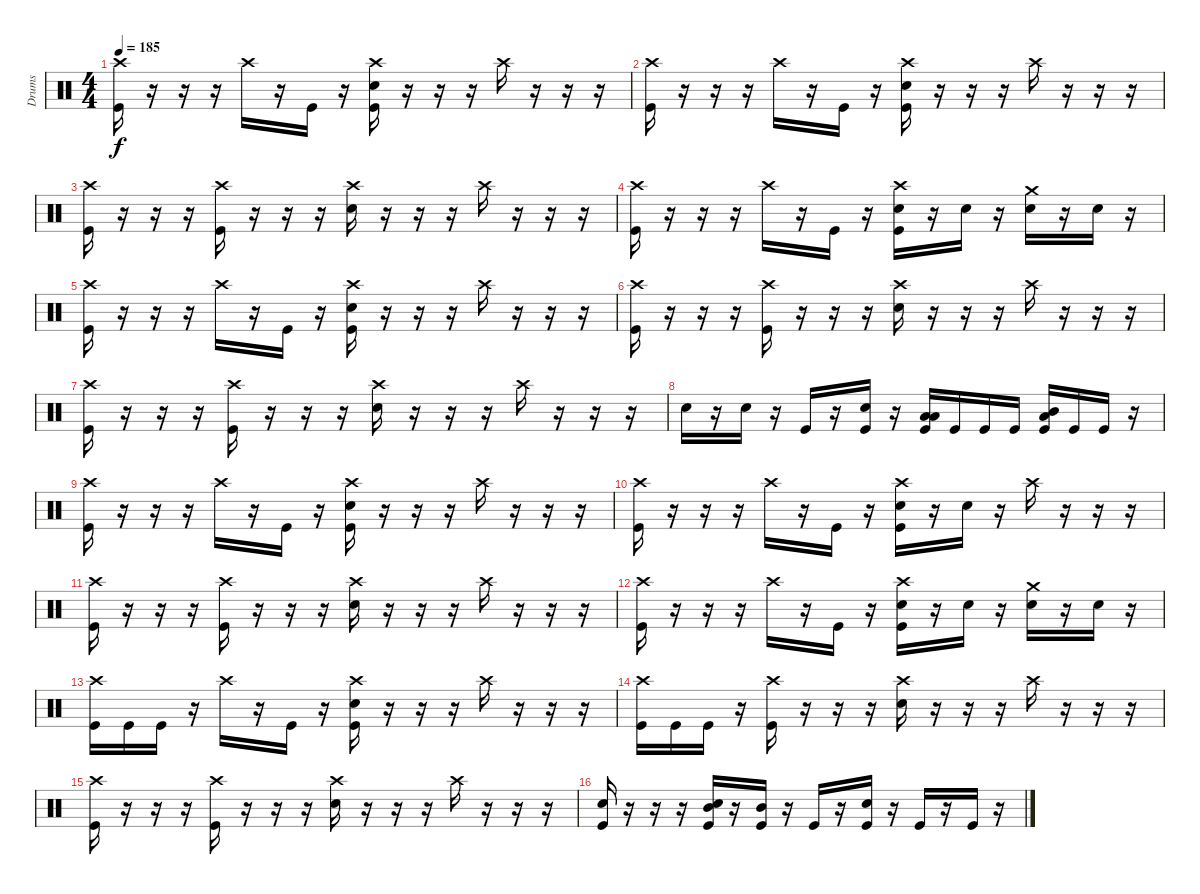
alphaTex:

\track ("Drums" "Drums") {instrument percussion}
\staff {score}
\articulation defaults
\ts (4 4)
\tempo 185
\clef neutral
\ks c
("Crash high (hit)" "Kick (hit)").16{dy f} r.16 r.16 r.16 "Crash high (hit)".16 r.16 "Kick (hit)".16 r.16 ("Crash high (hit)" "Snare (hit) 2" "Kick (hit)").16 r.16 r.16 r.16 "Crash high (hit)".16 r.16 r.16 r.16 |
("Crash high (hit)" "Kick (hit)").16 r.16 r.16 r.16 "Crash high (hit)".16 r.16 "Kick (hit)".16 r.16 ("Crash high (hit)" "Snare (hit) 2" "Kick (hit)").16 r.16 r.16 r.16 "Crash high (hit)".16 r.16 r.16 r.16 |
("Crash high (hit)" "Kick (hit)").16 r.16 r.16 r.16 ("Crash high (hit)" "Kick (hit)").16 r.16 r.16 r.16 ("Crash high (hit)" "Snare (hit) 2").16 r.16 r.16 r.16 "Crash high (hit)".16 r.16 r.16 r.16 |
("Crash high (hit)" "Kick (hit)").16 r.16 r.16 r.16 "Crash high (hit)".16 r.16 "Kick (hit)".16 r.16 ("Crash high (hit)" "Snare (hit) 2" "Kick (hit)").16 r.16 "Snare (hit) 2".16 r.16 ("Crash medium (hit)" "Snare (hit) 2").16 r.16 "Snare (hit) 2".16 r.16 |
("Crash high (hit)" "Kick (hit)").16 r.16 r.16 r.16 "Crash high (hit)".16 r.16 "Kick (hit)".16 r.16 ("Crash high (hit)" "Snare (hit) 2" "Kick (hit)").16 r.16 r.16 r.16 "Crash high (hit)".16 r.16 r.16 r.16 |
("Crash high (hit)" "Kick (hit)").16 r.16 r.16 r.16 ("Crash high (hit)" "Kick (hit)").16 r.16 r.16 r.16 ("Crash high (hit)" "Snare (hit) 2").16 r.16 r.16 r.16 "Crash high (hit)".16 r.16 r.16 r.16 |
("Crash high (hit)" "Kick (hit)").16 r.16 r.16 r.16 ("Crash high (hit)" "Kick (hit)").16 r.16 r.16 r.16 ("Crash high (hit)" "Snare (hit) 2").16 r.16 r.16 r.16 "Crash high (hit)".16 r.16 r.16 r.16 |
"Snare (hit) 2".16 r.16 "Snare (hit) 2".16 r.16 "Kick (hit)".16 r.16 ("Snare (hit) 2" "Kick (hit)").16 r.16 ("Low Tom (hit)" "Low Floor Tom (hit)" "Kick (hit)").16 "Kick (hit)".16 "Kick (hit)".16 "Kick (hit)".16 ("Mid Tom (hit)" "Low Tom (hit)" "Kick (hit)").16 "Kick (hit)".16 "Kick (hit)".16 r.16 |
("Crash high (hit)" "Kick (hit)").16{volume 14} r.16 r.16 r.16 "Crash high (hit)".16 r.16 "Kick (hit)".16 r.16 ("Crash high (hit)" "Snare (hit) 2" "Kick (hit)").16 r.16 r.16 r.16 "Crash high (hit)".16 r.16 r.16 r.16 |
("Crash high (hit)" "Kick (hit)").16 r.16 r.16 r.16 "Crash high (hit)".16 r.16 "Kick (hit)".16 r.16 ("Crash high (hit)" "Snare (hit) 2" "Kick (hit)").16 r.16 "Snare (hit) 2".16 r.16 "Crash high (hit)".16 r.16 r.16 r.16 |
("Crash high (hit)" "Kick (hit)").16 r.16 r.16 r.16 ("Crash high (hit)" "Kick (hit)").16 r.16 r.16 r.16 ("Crash high (hit)" "Snare (hit) 2").16 r.16 r.16 r.16 "Crash high (hit)".16 r.16 r.16 r.16 |
("Crash high (hit)" "Kick (hit)").16 r.16 r.16 r.16 "Crash high (hit)".16 r.16 "Kick (hit)".16 r.16 ("Crash high (hit)" "Snare (hit) 2" "Kick (hit)").16 r.16 "Snare (hit) 2".16 r.16 ("Crash medium (hit)" "Snare (hit) 2").16 r.16 "Snare (hit) 2".16 r.16 |
("Crash high (hit)" "Kick (hit)").16 "Kick (hit)".16 "Kick (hit)".16 r.16 "Crash high (hit)".16 r.16 "Kick (hit)".16 r.16 ("Crash high (hit)" "Snare (hit) 2" "Kick (hit)").16 r.16 r.16 r.16 "Crash high (hit)".16 r.16 r.16 r.16 |
("Crash high (hit)" "Kick (hit)").16 "Kick (hit)".16 "Kick (hit)".16 r.16 ("Crash high (hit)" "Kick (hit)").16 r.16 r.16 r.16 ("Crash high (hit)" "Snare (hit) 2").16 r.16 r.16 r.16 "Crash high (hit)".16 r.16 r.16 r.16 |
("Crash high (hit)" "Kick (hit)").16 r.16 r.16 r.16 ("Crash high (hit)" "Kick (hit)").16 r.16 r.16 r.16 ("Crash high (hit)" "Snare (hit) 2").16 r.16 r.16 r.16 "Crash high (hit)".16 r.16 r.16 r.16 |
("Snare (hit) 2" "Kick (hit)").16 r.16 r.16 r.16 ("Snare (hit) 2" "Mid Tom (hit)" "Kick (hit)").16 r.16 ("Mid Tom (hit)" "Kick (hit)").16 r.16 "Kick (hit)".16 r.16 ("Snare (hit) 2" "Kick (hit)").16 r.16 "Kick (hit)".16 r.16 "Kick (hit)".16 r.16
